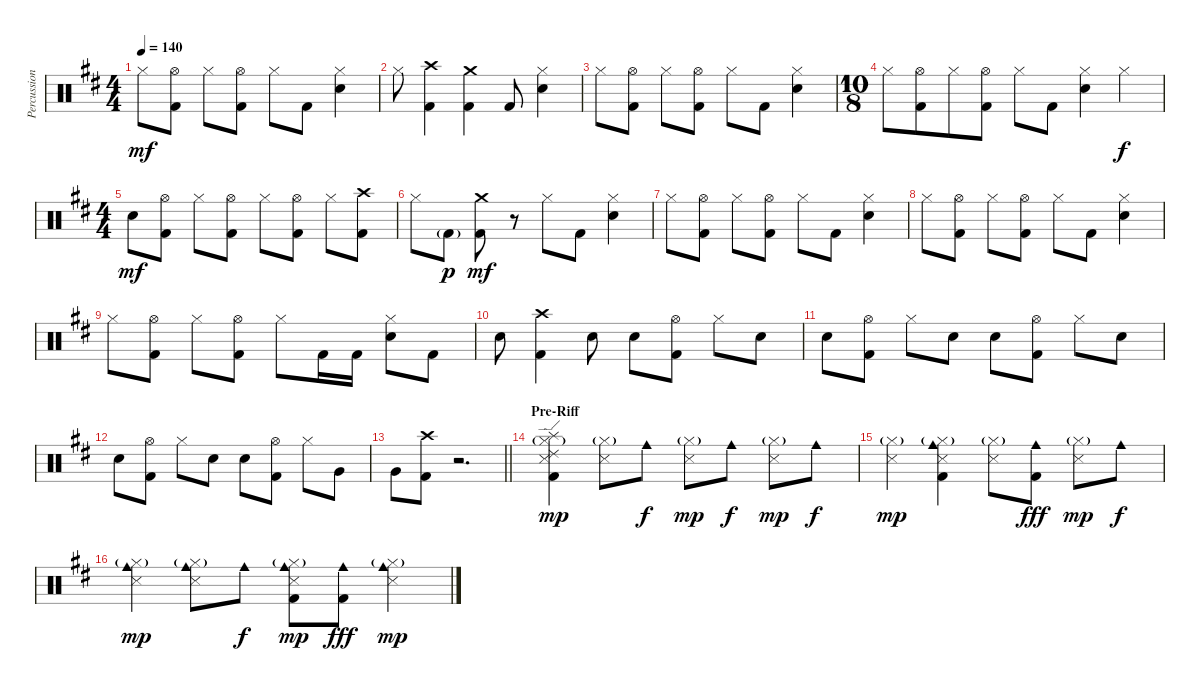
\track ("Percussions" "Percussion") {instrument percussion}
\staff {score}
\articulation defaults
\ts (4 4)
\tempo 140
\clef neutral
\ks d "Hi-Hat (closed)".8{dy mf}
("Kick (hit) 2" "Hi-Hat (open)").8 "Hi-Hat (closed)".8 ("Kick (hit) 2" "Hi-Hat (open)").8 "Hi-Hat (closed)".8 "Kick (hit) 2".8 ("Electric Snare (hit)" "Hi-Hat (closed)").4 |
"Hi-Hat (closed)".8 ("Crash high (hit)" "Kick (hit) 2").4 ("Crash medium (hit)" "Kick (hit) 2").4 "Kick (hit) 2".8 ("Electric Snare (hit)" "Hi-Hat (closed)").4 |
"Hi-Hat (closed)".8 ("Kick (hit) 2" "Hi-Hat (open)").8 "Hi-Hat (closed)".8 ("Kick (hit) 2" "Hi-Hat (open)").8 "Hi-Hat (closed)".8 "Kick (hit) 2".8 ("Electric Snare (hit)" "Hi-Hat (closed)").4 |
\ts (10 8)
"Hi-Hat (closed)".8 ("Kick (hit) 2" "Hi-Hat (open)").8 "Hi-Hat (closed)".8 ("Kick (hit) 2" "Hi-Hat (open)").8 "Hi-Hat (closed)".8 "Kick (hit) 2".8 ("Electric Snare (hit)" "Hi-Hat (closed)").4 "Hi-Hat (closed)".4{dy f} |
\ts (4 4)
"Electric Snare (hit)".8{dy mf} ("Kick (hit) 2" "Hi-Hat (open)").8 "Hi-Hat (closed)".8 ("Kick (hit) 2" "Hi-Hat (open)").8 "Hi-Hat (closed)".8 ("Kick (hit) 2" "Hi-Hat (open)").8 "Hi-Hat (closed)".8 ("Crash high (hit)" "Kick (hit) 2").8 |
"Hi-Hat (closed)".8 "Kick (hit) 2"{g}.8{dy p} ("Crash medium (hit)" "Kick (hit) 2").8{dy mf} r.8 "Hi-Hat (closed)".8 "Kick (hit) 2".8 ("Electric Snare (hit)" "Hi-Hat (closed)").4 |
"Hi-Hat (closed)".8 ("Kick (hit) 2" "Hi-Hat (open)").8 "Hi-Hat (closed)".8 ("Kick (hit) 2" "Hi-Hat (open)").8 "Hi-Hat (closed)".8 "Kick (hit) 2".8 ("Electric Snare (hit)" "Hi-Hat (closed)").4 |
"Hi-Hat (closed)".8 ("Kick (hit) 2" "Hi-Hat (open)").8 "Hi-Hat (closed)".8 ("Kick (hit) 2" "Hi-Hat (open)").8 "Hi-Hat (closed)".8 "Kick (hit) 2".8 ("Electric Snare (hit)" "Hi-Hat (closed)").4 |
"Hi-Hat (closed)".8 ("Kick (hit) 2" "Hi-Hat (open)").8 "Hi-Hat (closed)".8 ("Kick (hit) 2" "Hi-Hat (open)").8 "Hi-Hat (closed)".8 "Kick (hit) 2".16 "Kick (hit) 2".16 ("Electric Snare (hit)" "Hi-Hat (closed)").8 "Kick (hit) 2".8 |
"Electric Snare (hit)".8 ("Crash high (hit)" "Kick (hit) 2").4 "Electric Snare (hit)".8 "Electric Snare (hit)".8 ("Kick (hit) 2" "Hi-Hat (open)").8 "Hi-Hat (closed)".8 "Electric Snare (hit)".8 |
"Electric Snare (hit)".8 ("Kick (hit) 2" "Hi-Hat (open)").8 "Hi-Hat (closed)".8 "Electric Snare (hit)".8 "Electric Snare (hit)".8 ("Kick (hit) 2" "Hi-Hat (open)").8 "Hi-Hat (closed)".8 "Electric Snare (hit)".8 |
"Electric Snare (hit)".8 ("Kick (hit) 2" "Hi-Hat (open)").8 "Hi-Hat (closed)".8 "Electric Snare (hit)".8 "Electric Snare (hit)".8 ("Kick (hit) 2" "Hi-Hat (open)").8 "Hi-Hat (closed)".8 "Very Low Tom (hit)".8 |
\barLineRight lightlight "Very Low Tom (hit)".8
("Crash high (hit)" "Kick (hit) 2").8 r.2{d} |
\section ("" "Pre-Riff")
("Splash (hit)" "Ride (edge) 2" "Snare (side stick) 3" "Kick (hit) 2" "Hi-Hat (closed)"{g}).4{dy mp} ("Snare (side stick) 3" "Hi-Hat (closed)"{g}).8 "Cowbell medium (hit)".8{dy f} ("Snare (side stick) 3" "Hi-Hat (closed)"{g}).8{dy mp} "Cowbell medium (hit)".8{dy f} ("Snare (side stick) 3" "Hi-Hat (closed)"{g}).8{dy mp} "Cowbell medium (hit)".8{dy f} |
("Snare (side stick) 3" "Hi-Hat (closed)"{g}).4{dy mp} ("Cowbell medium (hit)" "Snare (side stick) 3" "Kick (hit) 2" "Hi-Hat (closed)"{g}).4 ("Snare (side stick) 3" "Hi-Hat (closed)"{g}).8 ("Cowbell medium (hit)" "Kick (hit) 2").8{dy fff} ("Snare (side stick) 3" "Hi-Hat (closed)"{g}).8{dy mp} "Cowbell medium (hit)".8{dy f} |
("Cowbell medium (hit)" "Snare (side stick) 3" "Hi-Hat (closed)"{g}).4{dy mp} ("Cowbell medium (hit)" "Snare (side stick) 3" "Hi-Hat (closed)"{g}).8 "Cowbell medium (hit)".8{dy f} ("Cowbell medium (hit)" "Snare (side stick) 3" "Kick (hit) 2" "Hi-Hat (closed)"{g}).8{dy mp} ("Cowbell medium (hit)" "Kick (hit) 2").8{dy fff} ("Cowbell medium (hit)" "Snare (side stick) 3" "Hi-Hat (closed)"{g}).4{dy mp}
